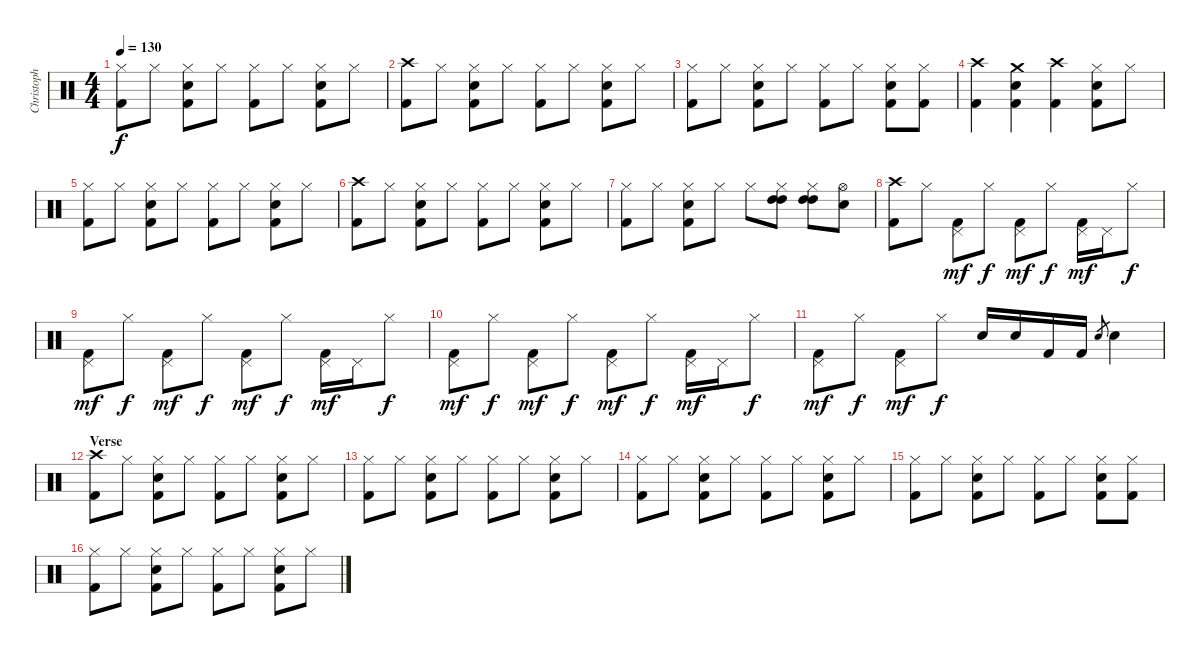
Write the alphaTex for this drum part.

\track ("Christoph" "Christoph") {instrument percussion}
\staff {score}
\articulation defaults
\ts (4 4)
\tempo 130
\clef neutral
\ks c
("Hi-Hat (closed)" "Kick (hit) 2").8{dy f} "Hi-Hat (closed)".8 ("Hi-Hat (closed)" "Electric Snare (hit)" "Kick (hit) 2").8 "Hi-Hat (closed)".8 ("Hi-Hat (closed)" "Kick (hit) 2").8 "Hi-Hat (closed)".8 ("Hi-Hat (closed)" "Electric Snare (hit)" "Kick (hit) 2").8 "Hi-Hat (closed)".8 |
("Crash high (hit)" "Kick (hit) 2").8 "Hi-Hat (closed)".8 ("Hi-Hat (closed)" "Electric Snare (hit)" "Kick (hit) 2").8 "Hi-Hat (closed)".8 ("Hi-Hat (closed)" "Kick (hit) 2").8 "Hi-Hat (closed)".8 ("Hi-Hat (closed)" "Electric Snare (hit)" "Kick (hit) 2").8 "Hi-Hat (closed)".8 |
("Hi-Hat (closed)" "Kick (hit) 2").8 "Hi-Hat (closed)".8 ("Hi-Hat (closed)" "Electric Snare (hit)" "Kick (hit) 2").8 "Hi-Hat (closed)".8 ("Hi-Hat (closed)" "Kick (hit) 2").8 "Hi-Hat (closed)".8 ("Hi-Hat (closed)" "Electric Snare (hit)" "Kick (hit) 2").8 ("Hi-Hat (closed)" "Kick (hit) 2").8 |
("Crash high (hit)" "Kick (hit) 2").4 ("Crash medium (hit)" "Electric Snare (hit)" "Kick (hit) 2").4 ("Crash high (hit)" "Kick (hit) 2").4 ("Hi-Hat (closed)" "Electric Snare (hit)" "Kick (hit) 2").8 "Hi-Hat (closed)".8 |
("Hi-Hat (closed)" "Kick (hit) 2").8 "Hi-Hat (closed)".8 ("Hi-Hat (closed)" "Electric Snare (hit)" "Kick (hit) 2").8 "Hi-Hat (closed)".8 ("Hi-Hat (closed)" "Kick (hit) 2").8 "Hi-Hat (closed)".8 ("Hi-Hat (closed)" "Electric Snare (hit)" "Kick (hit) 2").8 "Hi-Hat (closed)".8 |
("Crash high (hit)" "Kick (hit) 2").8 "Hi-Hat (closed)".8 ("Hi-Hat (closed)" "Electric Snare (hit)" "Kick (hit) 2").8 "Hi-Hat (closed)".8 ("Hi-Hat (closed)" "Kick (hit) 2").8 "Hi-Hat (closed)".8 ("Hi-Hat (closed)" "Electric Snare (hit)" "Kick (hit) 2").8 "Hi-Hat (closed)".8 |
("Hi-Hat (closed)" "Kick (hit) 2").8 "Hi-Hat (closed)".8 ("Hi-Hat (closed)" "Electric Snare (hit)" "Kick (hit) 2").8 "Hi-Hat (closed)".8 "Hi-Hat (closed)".8 ("Hi-Hat (closed)" "High Tom (hit)" "High Tom (hit)").8 ("Hi-Hat (closed)" "High Tom (hit)" "High Tom (hit)").8 ("Hi-Hat (open)" "Electric Snare (hit)").8 |
("Crash high (hit)" "Kick (hit) 2").8 "Hi-Hat (closed)".8 ("Pedal Hi-Hat (hit)" "Kick (hit) 2").8{dy mf} "Hi-Hat (closed)".8{dy f} ("Pedal Hi-Hat (hit)" "Kick (hit) 2").8{dy mf} "Hi-Hat (closed)".8{dy f} ("Pedal Hi-Hat (hit)" "Kick (hit) 2").16{dy mf} "Pedal Hi-Hat (hit)".16 "Hi-Hat (closed)".8{dy f} |
("Pedal Hi-Hat (hit)" "Kick (hit) 2").8{dy mf} "Hi-Hat (closed)".8{dy f} ("Pedal Hi-Hat (hit)" "Kick (hit) 2").8{dy mf} "Hi-Hat (closed)".8{dy f} ("Pedal Hi-Hat (hit)" "Kick (hit) 2").8{dy mf} "Hi-Hat (closed)".8{dy f} ("Pedal Hi-Hat (hit)" "Kick (hit) 2").16{dy mf} "Pedal Hi-Hat (hit)".16 "Hi-Hat (closed)".8{dy f} |
("Pedal Hi-Hat (hit)" "Kick (hit) 2").8{dy mf} "Hi-Hat (closed)".8{dy f} ("Pedal Hi-Hat (hit)" "Kick (hit) 2").8{dy mf} "Hi-Hat (closed)".8{dy f} ("Pedal Hi-Hat (hit)" "Kick (hit) 2").8{dy mf} "Hi-Hat (closed)".8{dy f} ("Pedal Hi-Hat (hit)" "Kick (hit) 2").16{dy mf} "Pedal Hi-Hat (hit)".16 "Hi-Hat (closed)".8{dy f} |
("Pedal Hi-Hat (hit)" "Kick (hit) 2").8{dy mf} "Hi-Hat (closed)".8{dy f} ("Pedal Hi-Hat (hit)" "Kick (hit) 2").8{dy mf} "Hi-Hat (closed)".8{dy f} "Electric Snare (hit)".16 "Electric Snare (hit)".16 "Kick (hit) 2".16 "Kick (hit) 2".16 "Electric Snare (hit)".8{gr} "Electric Snare (hit)".4 |
\section ("" "Verse")
("Crash high (hit)" "Kick (hit) 2").8 "Hi-Hat (closed)".8 ("Hi-Hat (closed)" "Electric Snare (hit)" "Kick (hit) 2").8 "Hi-Hat (closed)".8 ("Hi-Hat (closed)" "Kick (hit) 2").8 "Hi-Hat (closed)".8 ("Hi-Hat (closed)" "Electric Snare (hit)" "Kick (hit) 2").8 "Hi-Hat (closed)".8 |
("Hi-Hat (closed)" "Kick (hit) 2").8 "Hi-Hat (closed)".8 ("Hi-Hat (closed)" "Electric Snare (hit)" "Kick (hit) 2").8 "Hi-Hat (closed)".8 ("Hi-Hat (closed)" "Kick (hit) 2").8 "Hi-Hat (closed)".8 ("Hi-Hat (closed)" "Electric Snare (hit)" "Kick (hit) 2").8 "Hi-Hat (closed)".8 |
("Hi-Hat (closed)" "Kick (hit) 2").8 "Hi-Hat (closed)".8 ("Hi-Hat (closed)" "Electric Snare (hit)" "Kick (hit) 2").8 "Hi-Hat (closed)".8 ("Hi-Hat (closed)" "Kick (hit) 2").8 "Hi-Hat (closed)".8 ("Hi-Hat (closed)" "Electric Snare (hit)" "Kick (hit) 2").8 "Hi-Hat (closed)".8 |
("Hi-Hat (closed)" "Kick (hit) 2").8 "Hi-Hat (closed)".8 ("Hi-Hat (closed)" "Electric Snare (hit)" "Kick (hit) 2").8 "Hi-Hat (closed)".8 ("Hi-Hat (closed)" "Kick (hit) 2").8 "Hi-Hat (closed)".8 ("Hi-Hat (closed)" "Electric Snare (hit)" "Kick (hit) 2").8 ("Hi-Hat (closed)" "Kick (hit) 2").8 |
("Hi-Hat (closed)" "Kick (hit) 2").8 "Hi-Hat (closed)".8 ("Hi-Hat (closed)" "Electric Snare (hit)" "Kick (hit) 2").8 "Hi-Hat (closed)".8 ("Hi-Hat (closed)" "Kick (hit) 2").8 "Hi-Hat (closed)".8 ("Hi-Hat (closed)" "Electric Snare (hit)" "Kick (hit) 2").8 "Hi-Hat (closed)".8
